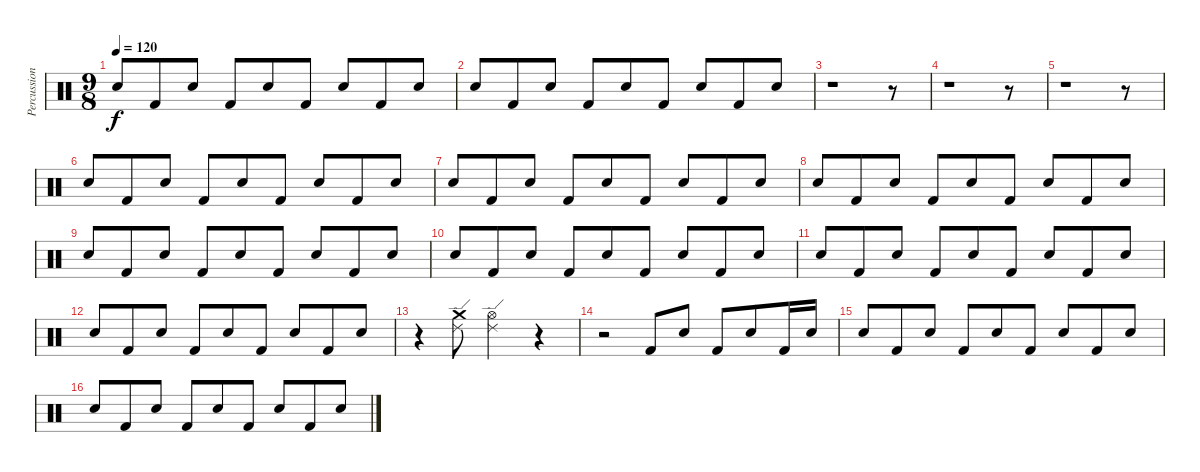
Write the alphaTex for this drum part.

\track ("Percussion" "Percussion") {instrument percussion}
\staff {score}
\articulation defaults
\ts (9 8)
\tempo 120
\clef neutral
\ks c "Electric Snare (hit)".8{dy f} "Kick (hit) 2".8 "Electric Snare (hit)".8 "Kick (hit) 2".8 "Electric Snare (hit)".8 "Kick (hit) 2".8 "Electric Snare (hit)".8 "Kick (hit) 2".8 "Electric Snare (hit)".8
|
"Electric Snare (hit)".8 "Kick (hit) 2".8 "Electric Snare (hit)".8 "Kick (hit) 2".8 "Electric Snare (hit)".8 "Kick (hit) 2".8 "Electric Snare (hit)".8 "Kick (hit) 2".8 "Electric Snare (hit)".8 |
r.1 r.8 |
r.1 r.8 |
r.1 r.8 |
"Electric Snare (hit)".8 "Kick (hit) 2".8 "Electric Snare (hit)".8 "Kick (hit) 2".8 "Electric Snare (hit)".8 "Kick (hit) 2".8 "Electric Snare (hit)".8 "Kick (hit) 2".8 "Electric Snare (hit)".8 |
"Electric Snare (hit)".8 "Kick (hit) 2".8 "Electric Snare (hit)".8 "Kick (hit) 2".8 "Electric Snare (hit)".8 "Kick (hit) 2".8 "Electric Snare (hit)".8 "Kick (hit) 2".8 "Electric Snare (hit)".8 |
"Electric Snare (hit)".8 "Kick (hit) 2".8 "Electric Snare (hit)".8 "Kick (hit) 2".8 "Electric Snare (hit)".8 "Kick (hit) 2".8 "Electric Snare (hit)".8 "Kick (hit) 2".8 "Electric Snare (hit)".8 |
"Electric Snare (hit)".8 "Kick (hit) 2".8 "Electric Snare (hit)".8 "Kick (hit) 2".8 "Electric Snare (hit)".8 "Kick (hit) 2".8 "Electric Snare (hit)".8 "Kick (hit) 2".8 "Electric Snare (hit)".8 |
"Electric Snare (hit)".8 "Kick (hit) 2".8 "Electric Snare (hit)".8 "Kick (hit) 2".8 "Electric Snare (hit)".8 "Kick (hit) 2".8 "Electric Snare (hit)".8 "Kick (hit) 2".8 "Electric Snare (hit)".8 |
"Electric Snare (hit)".8 "Kick (hit) 2".8 "Electric Snare (hit)".8 "Kick (hit) 2".8 "Electric Snare (hit)".8 "Kick (hit) 2".8 "Electric Snare (hit)".8 "Kick (hit) 2".8 "Electric Snare (hit)".8 |
"Electric Snare (hit)".8 "Kick (hit) 2".8 "Electric Snare (hit)".8 "Kick (hit) 2".8 "Electric Snare (hit)".8 "Kick (hit) 2".8 "Electric Snare (hit)".8 "Kick (hit) 2".8 "Electric Snare (hit)".8 |
r.4 ("Ride (edge) 2" "Crash medium (hit)").8 ("Ride (edge) 2" "Hi-Hat (open)").2 r.4 |
r.2 "Kick (hit) 2".8 "Electric Snare (hit)".8 "Kick (hit) 2".8 "Electric Snare (hit)".8 "Kick (hit) 2".16 "Electric Snare (hit)".16 |
"Electric Snare (hit)".8 "Kick (hit) 2".8 "Electric Snare (hit)".8 "Kick (hit) 2".8 "Electric Snare (hit)".8 "Kick (hit) 2".8 "Electric Snare (hit)".8 "Kick (hit) 2".8 "Electric Snare (hit)".8 |
"Electric Snare (hit)".8 "Kick (hit) 2".8 "Electric Snare (hit)".8 "Kick (hit) 2".8 "Electric Snare (hit)".8 "Kick (hit) 2".8 "Electric Snare (hit)".8 "Kick (hit) 2".8 "Electric Snare (hit)".8
